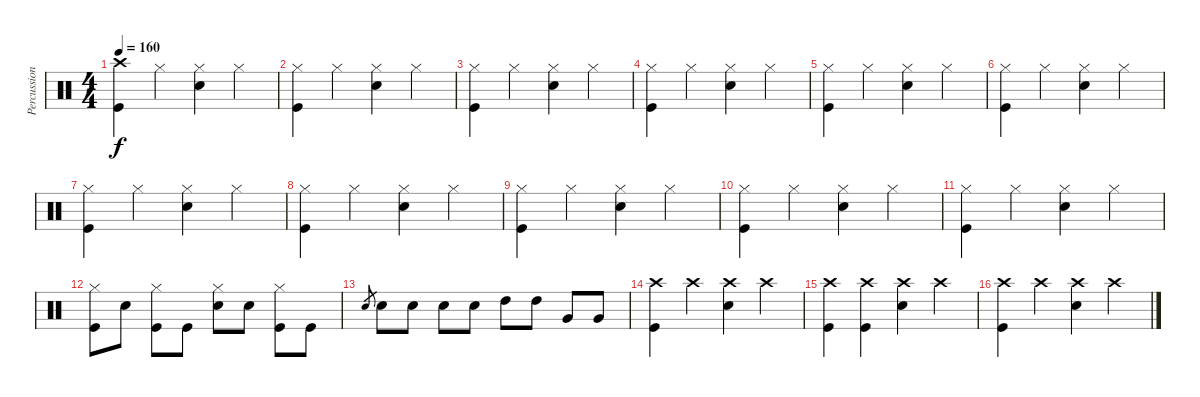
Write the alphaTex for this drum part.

\track ("Percussions" "Percussion") {instrument percussion}
\staff {score}
\articulation defaults
\ts (4 4)
\tempo 160
\clef neutral
\ks c
("Kick (hit)" "Crash high (hit)").4{dy f} "Hi-Hat (closed)".4 ("Snare (hit) 2" "Hi-Hat (closed)").4 "Hi-Hat (closed)".4 |
("Kick (hit)" "Hi-Hat (closed)").4 "Hi-Hat (closed)".4 ("Snare (hit) 2" "Hi-Hat (closed)").4 "Hi-Hat (closed)".4 |
("Kick (hit)" "Hi-Hat (closed)").4 "Hi-Hat (closed)".4 ("Snare (hit) 2" "Hi-Hat (closed)").4 "Hi-Hat (closed)".4 |
("Kick (hit)" "Hi-Hat (closed)").4 "Hi-Hat (closed)".4 ("Snare (hit) 2" "Hi-Hat (closed)").4 "Hi-Hat (closed)".4 |
("Kick (hit)" "Hi-Hat (closed)").4 "Hi-Hat (closed)".4 ("Snare (hit) 2" "Hi-Hat (closed)").4 "Hi-Hat (closed)".4 |
("Kick (hit)" "Hi-Hat (closed)").4 "Hi-Hat (closed)".4 ("Snare (hit) 2" "Hi-Hat (closed)").4 "Hi-Hat (closed)".4 |
("Kick (hit)" "Hi-Hat (closed)").4 "Hi-Hat (closed)".4 ("Snare (hit) 2" "Hi-Hat (closed)").4 "Hi-Hat (closed)".4 |
("Kick (hit)" "Hi-Hat (closed)").4 "Hi-Hat (closed)".4 ("Snare (hit) 2" "Hi-Hat (closed)").4 "Hi-Hat (closed)".4 |
("Kick (hit)" "Hi-Hat (closed)").4 "Hi-Hat (closed)".4 ("Snare (hit) 2" "Hi-Hat (closed)").4 "Hi-Hat (closed)".4 |
("Kick (hit)" "Hi-Hat (closed)").4 "Hi-Hat (closed)".4 ("Snare (hit) 2" "Hi-Hat (closed)").4 "Hi-Hat (closed)".4 |
("Kick (hit)" "Hi-Hat (closed)").4 "Hi-Hat (closed)".4 ("Snare (hit) 2" "Hi-Hat (closed)").4 "Hi-Hat (closed)".4 |
("Kick (hit)" "Hi-Hat (closed)").8 "Snare (hit) 2".8 ("Kick (hit)" "Hi-Hat (closed)").8 "Kick (hit)".8 ("Snare (hit) 2" "Hi-Hat (closed)").8 "Snare (hit) 2".8 ("Kick (hit)" "Hi-Hat (closed)").8 "Kick (hit)".8 |
"Snare (hit) 2".8{gr} "Snare (hit) 2".8 "Snare (hit) 2".8 "Snare (hit) 2".8 "Snare (hit) 2".8 "High Tom (hit)".8 "High Tom (hit)".8 "Very Low Tom (hit)".8 "Very Low Tom (hit)".8 |
("Kick (hit)" "Crash high (hit)").4 "Crash high (hit)".4 ("Snare (hit) 2" "Crash high (hit)").4 "Crash high (hit)".4 |
("Kick (hit)" "Crash high (hit)").4 ("Kick (hit)" "Crash high (hit)").4 ("Crash high (hit)" "Snare (hit) 2").4 "Crash high (hit)".4 |
("Kick (hit)" "Crash high (hit)").4 "Crash high (hit)".4 ("Snare (hit) 2" "Crash high (hit)").4 "Crash high (hit)".4
